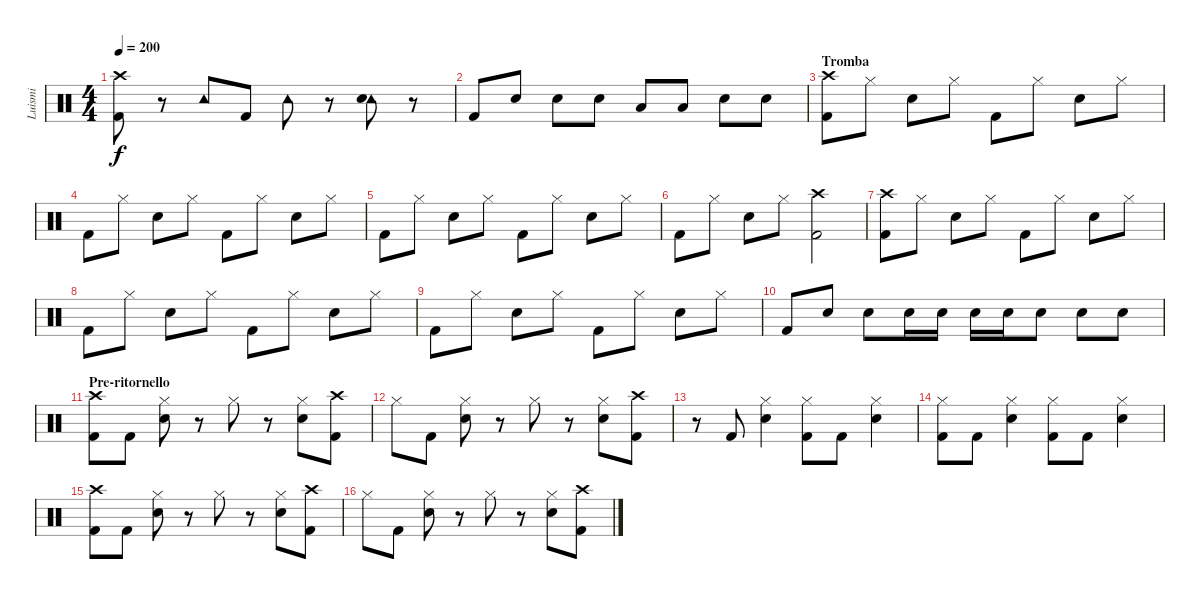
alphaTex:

\track ("Luismi" "Luismi") {instrument percussion}
\staff {score}
\articulation defaults
\ts (4 4)
\tempo 200
\clef neutral
\ks c
("Crash high (hit)" "Kick (hit) 2").8{dy f} r.8 "Tambourine (hit)".8 "Kick (hit) 2".8 "Tambourine (hit)".8 r.8 ("Tambourine (hit)" "Electric Snare (hit)").8 r.8 |
"Kick (hit) 2".8 "Electric Snare (hit)".8 "Electric Snare (hit)".8 "Electric Snare (hit)".8 "Low Tom (hit)".8 "Low Tom (hit)".8 "Electric Snare (hit)".8 "Electric Snare (hit)".8 |
\section ("" "Tromba")
("Kick (hit) 2" "Crash high (hit)").8 "Hi-Hat (closed)".8 "Electric Snare (hit)".8 "Hi-Hat (closed)".8 "Kick (hit) 2".8 "Hi-Hat (closed)".8 "Electric Snare (hit)".8 "Hi-Hat (closed)".8 |
"Kick (hit) 2".8 "Hi-Hat (closed)".8 "Electric Snare (hit)".8 "Hi-Hat (closed)".8 "Kick (hit) 2".8 "Hi-Hat (closed)".8 "Electric Snare (hit)".8 "Hi-Hat (closed)".8 |
"Kick (hit) 2".8 "Hi-Hat (closed)".8 "Electric Snare (hit)".8 "Hi-Hat (closed)".8 "Kick (hit) 2".8 "Hi-Hat (closed)".8 "Electric Snare (hit)".8 "Hi-Hat (closed)".8 |
"Kick (hit) 2".8 "Hi-Hat (closed)".8 "Electric Snare (hit)".8 "Hi-Hat (closed)".8 ("Kick (hit) 2" "Crash high (hit)").2 |
("Kick (hit) 2" "Crash high (hit)").8 "Hi-Hat (closed)".8 "Electric Snare (hit)".8 "Hi-Hat (closed)".8 "Kick (hit) 2".8 "Hi-Hat (closed)".8 "Electric Snare (hit)".8 "Hi-Hat (closed)".8 |
"Kick (hit) 2".8 "Hi-Hat (closed)".8 "Electric Snare (hit)".8 "Hi-Hat (closed)".8 "Kick (hit) 2".8 "Hi-Hat (closed)".8 "Electric Snare (hit)".8 "Hi-Hat (closed)".8 |
"Kick (hit) 2".8 "Hi-Hat (closed)".8 "Electric Snare (hit)".8 "Hi-Hat (closed)".8 "Kick (hit) 2".8 "Hi-Hat (closed)".8 "Electric Snare (hit)".8 "Hi-Hat (closed)".8 |
"Kick (hit) 2".8 "Electric Snare (hit)".8 "Electric Snare (hit)".8 "Electric Snare (hit)".16 "Electric Snare (hit)".16 "Electric Snare (hit)".16 "Electric Snare (hit)".16 "Electric Snare (hit)".8 "Electric Snare (hit)".8 "Electric Snare (hit)".8 |
\section ("" "Pre-ritornello")
("Crash high (hit)" "Kick (hit) 2").8 "Kick (hit) 2".8 ("Hi-Hat (closed)" "Electric Snare (hit)").8 r.8 "Hi-Hat (closed)".8 r.8 ("Hi-Hat (closed)" "Electric Snare (hit)").8 ("Crash high (hit)" "Kick (hit) 2").8 |
"Hi-Hat (closed)".8 "Kick (hit) 2".8 ("Hi-Hat (closed)" "Electric Snare (hit)").8 r.8 "Hi-Hat (closed)".8 r.8 ("Hi-Hat (closed)" "Electric Snare (hit)").8 ("Crash high (hit)" "Kick (hit) 2").8 |
r.8 "Kick (hit) 2".8 ("Hi-Hat (closed)" "Electric Snare (hit)").4 ("Hi-Hat (closed)" "Kick (hit) 2").8 "Kick (hit) 2".8 ("Hi-Hat (closed)" "Electric Snare (hit)").4 |
("Hi-Hat (closed)" "Kick (hit) 2").8 "Kick (hit) 2".8 ("Hi-Hat (closed)" "Electric Snare (hit)").4 ("Hi-Hat (closed)" "Kick (hit) 2").8 "Kick (hit) 2".8 ("Hi-Hat (closed)" "Electric Snare (hit)").4 |
("Crash high (hit)" "Kick (hit) 2").8 "Kick (hit) 2".8 ("Hi-Hat (closed)" "Electric Snare (hit)").8 r.8 "Hi-Hat (closed)".8 r.8 ("Hi-Hat (closed)" "Electric Snare (hit)").8 ("Crash high (hit)" "Kick (hit) 2").8 |
"Hi-Hat (closed)".8 "Kick (hit) 2".8 ("Hi-Hat (closed)" "Electric Snare (hit)").8 r.8 "Hi-Hat (closed)".8 r.8 ("Hi-Hat (closed)" "Electric Snare (hit)").8 ("Crash high (hit)" "Kick (hit) 2").8
